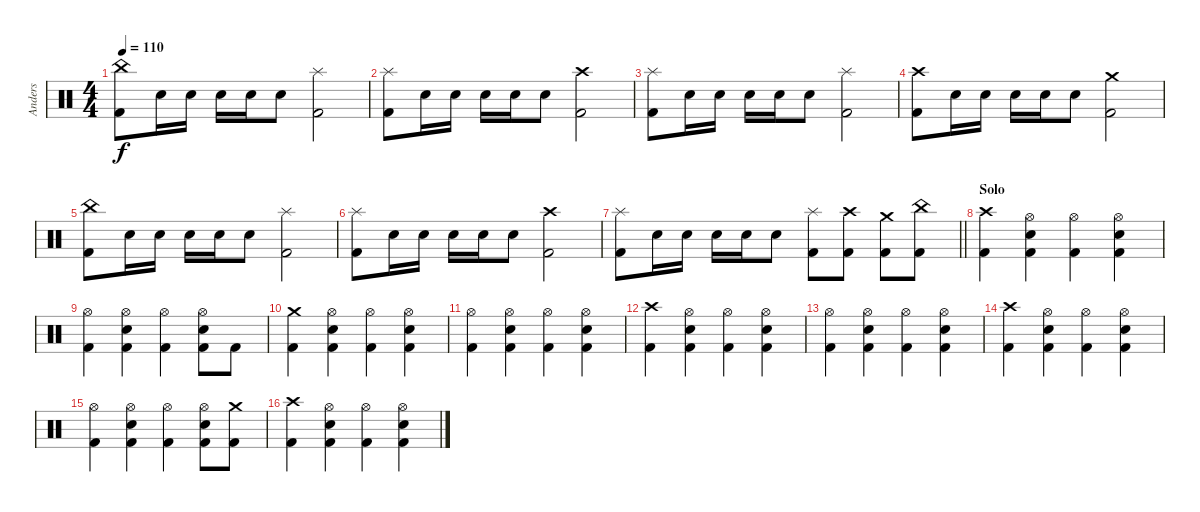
\track ("Anders" "Anders") {instrument percussion}
\staff {score}
\articulation defaults
\ts (4 4)
\tempo 110
\clef neutral
\ks c
("China (hit)" "Kick (hit) 2").8{dy f} "Snare (hit) 2".16 "Snare (hit) 2".16 "Snare (hit) 2".16 "Snare (hit) 2".16 "Snare (hit) 2".8 ("Splash (hit)" "Kick (hit) 2").2 |
("Splash (hit)" "Kick (hit) 2").8 "Snare (hit) 2".16 "Snare (hit) 2".16 "Snare (hit) 2".16 "Snare (hit) 2".16 "Snare (hit) 2".8 ("Crash high (hit)" "Kick (hit) 2").2 |
("Splash (hit)" "Kick (hit) 2").8 "Snare (hit) 2".16 "Snare (hit) 2".16 "Snare (hit) 2".16 "Snare (hit) 2".16 "Snare (hit) 2".8 ("Splash (hit)" "Kick (hit) 2").2 |
("Crash high (hit)" "Kick (hit) 2").8 "Snare (hit) 2".16 "Snare (hit) 2".16 "Snare (hit) 2".16 "Snare (hit) 2".16 "Snare (hit) 2".8 ("Crash medium (hit)" "Kick (hit) 2").2 |
("China (hit)" "Kick (hit) 2").8 "Snare (hit) 2".16 "Snare (hit) 2".16 "Snare (hit) 2".16 "Snare (hit) 2".16 "Snare (hit) 2".8 ("Splash (hit)" "Kick (hit) 2").2 |
("Splash (hit)" "Kick (hit) 2").8 "Snare (hit) 2".16 "Snare (hit) 2".16 "Snare (hit) 2".16 "Snare (hit) 2".16 "Snare (hit) 2".8 ("Crash high (hit)" "Kick (hit) 2").2 |
\barLineRight lightlight
("Splash (hit)" "Kick (hit) 2").8 "Snare (hit) 2".16 "Snare (hit) 2".16 "Snare (hit) 2".16 "Snare (hit) 2".16 "Snare (hit) 2".8 ("Splash (hit)" "Kick (hit) 2").8 ("Crash high (hit)" "Kick (hit) 2").8 ("Crash medium (hit)" "Kick (hit) 2").8 ("China (hit)" "Kick (hit) 2").8 |
\section ("" "Solo")
("Crash high (hit)" "Kick (hit) 2").4 ("Hi-Hat (open)" "Snare (hit) 2" "Kick (hit) 2").4 ("Hi-Hat (open)" "Kick (hit) 2").4 ("Hi-Hat (open)" "Snare (hit) 2" "Kick (hit) 2").4 |
("Hi-Hat (open)" "Kick (hit) 2").4 ("Hi-Hat (open)" "Snare (hit) 2" "Kick (hit) 2").4 ("Hi-Hat (open)" "Kick (hit) 2").4 ("Hi-Hat (open)" "Snare (hit) 2" "Kick (hit) 2").8 "Kick (hit) 2".8 |
("Crash medium (hit)" "Kick (hit) 2").4 ("Hi-Hat (open)" "Snare (hit) 2" "Kick (hit) 2").4 ("Hi-Hat (open)" "Kick (hit) 2").4 ("Hi-Hat (open)" "Snare (hit) 2" "Kick (hit) 2").4 |
("Hi-Hat (open)" "Kick (hit) 2").4 ("Hi-Hat (open)" "Snare (hit) 2" "Kick (hit) 2").4 ("Hi-Hat (open)" "Kick (hit) 2").4 ("Hi-Hat (open)" "Snare (hit) 2" "Kick (hit) 2").4 |
("Crash high (hit)" "Kick (hit) 2").4 ("Hi-Hat (open)" "Snare (hit) 2" "Kick (hit) 2").4 ("Hi-Hat (open)" "Kick (hit) 2").4 ("Hi-Hat (open)" "Snare (hit) 2" "Kick (hit) 2").4 |
("Hi-Hat (open)" "Kick (hit) 2").4 ("Hi-Hat (open)" "Snare (hit) 2" "Kick (hit) 2").4 ("Hi-Hat (open)" "Kick (hit) 2").4 ("Hi-Hat (open)" "Snare (hit) 2" "Kick (hit) 2").4 |
("Crash high (hit)" "Kick (hit) 2").4 ("Hi-Hat (open)" "Snare (hit) 2" "Kick (hit) 2").4 ("Hi-Hat (open)" "Kick (hit) 2").4 ("Hi-Hat (open)" "Snare (hit) 2" "Kick (hit) 2").4 |
("Hi-Hat (open)" "Kick (hit) 2").4 ("Hi-Hat (open)" "Snare (hit) 2" "Kick (hit) 2").4 ("Hi-Hat (open)" "Kick (hit) 2").4 ("Hi-Hat (open)" "Snare (hit) 2" "Kick (hit) 2").8 ("Crash medium (hit)" "Kick (hit) 2").8 |
("Crash high (hit)" "Kick (hit) 2").4 ("Hi-Hat (open)" "Snare (hit) 2" "Kick (hit) 2").4 ("Hi-Hat (open)" "Kick (hit) 2").4 ("Hi-Hat (open)" "Snare (hit) 2" "Kick (hit) 2").4
